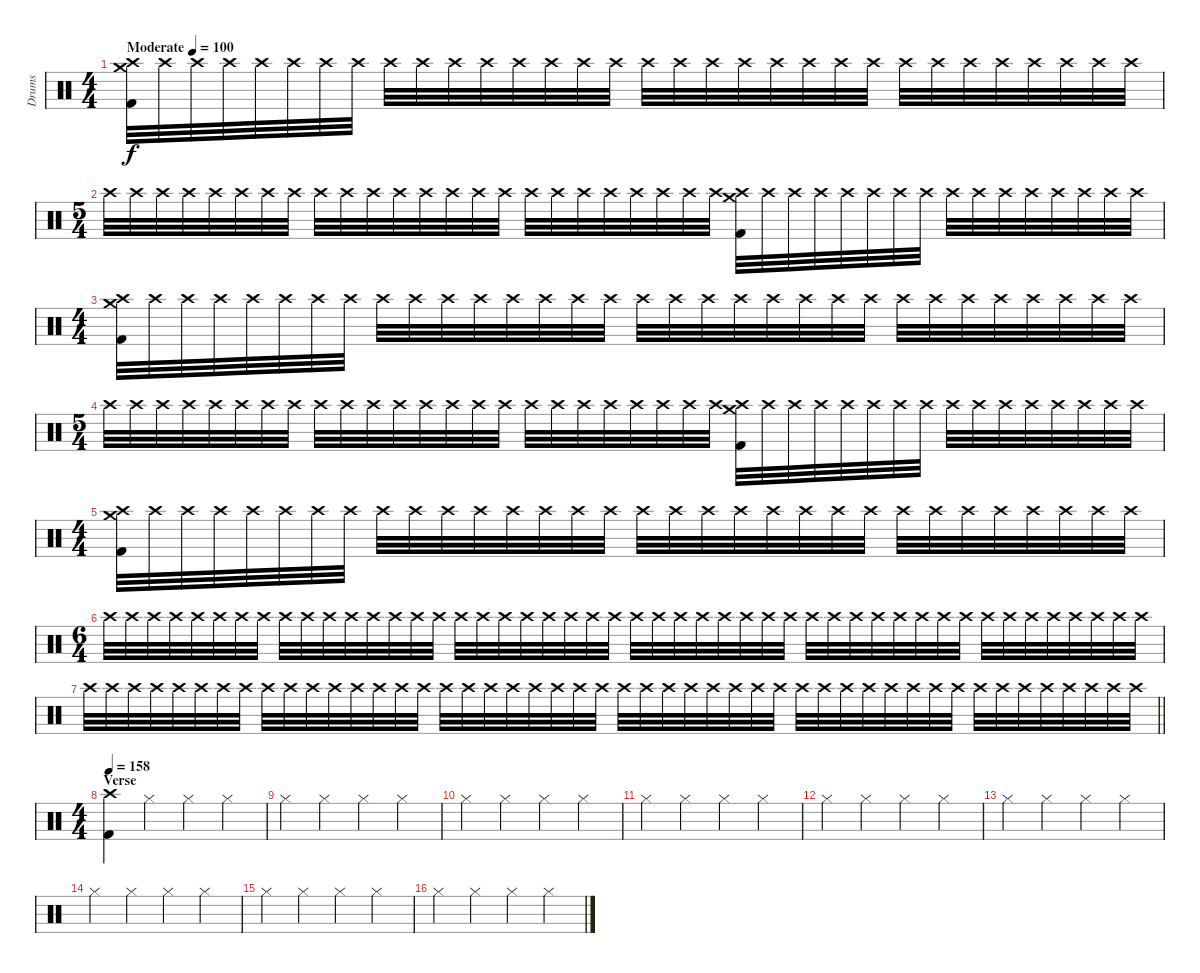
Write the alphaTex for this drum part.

\track ("Drums" "Drums") {instrument percussion}
\staff {score}
\articulation defaults
\ts (4 4)
\tempo (100 "Moderate")
\clef neutral
\ks c
("Crash medium (hit)" "Crash high (hit)" "Kick (hit) 2").32{dy f} "Crash high (hit)".32 "Crash high (hit)".32 "Crash high (hit)".32 "Crash high (hit)".32 "Crash high (hit)".32 "Crash high (hit)".32 "Crash high (hit)".32 "Crash high (hit)".32 "Crash high (hit)".32 "Crash high (hit)".32 "Crash high (hit)".32 "Crash high (hit)".32 "Crash high (hit)".32 "Crash high (hit)".32 "Crash high (hit)".32 "Crash high (hit)".32 "Crash high (hit)".32 "Crash high (hit)".32 "Crash high (hit)".32 "Crash high (hit)".32 "Crash high (hit)".32 "Crash high (hit)".32 "Crash high (hit)".32 "Crash high (hit)".32 "Crash high (hit)".32 "Crash high (hit)".32 "Crash high (hit)".32 "Crash high (hit)".32 "Crash high (hit)".32 "Crash high (hit)".32 "Crash high (hit)".32 |
\ts (5 4)
"Crash high (hit)".32 "Crash high (hit)".32 "Crash high (hit)".32 "Crash high (hit)".32 "Crash high (hit)".32 "Crash high (hit)".32 "Crash high (hit)".32 "Crash high (hit)".32 "Crash high (hit)".32 "Crash high (hit)".32 "Crash high (hit)".32 "Crash high (hit)".32 "Crash high (hit)".32 "Crash high (hit)".32 "Crash high (hit)".32 "Crash high (hit)".32 "Crash high (hit)".32 "Crash high (hit)".32 "Crash high (hit)".32 "Crash high (hit)".32 "Crash high (hit)".32 "Crash high (hit)".32 "Crash high (hit)".32 "Crash high (hit)".32 ("Crash medium (hit)" "Crash high (hit)" "Kick (hit) 2").32 "Crash high (hit)".32 "Crash high (hit)".32 "Crash high (hit)".32 "Crash high (hit)".32 "Crash high (hit)".32 "Crash high (hit)".32 "Crash high (hit)".32 "Crash high (hit)".32 "Crash high (hit)".32 "Crash high (hit)".32 "Crash high (hit)".32 "Crash high (hit)".32 "Crash high (hit)".32 "Crash high (hit)".32 "Crash high (hit)".32 |
\ts (4 4)
("Crash medium (hit)" "Crash high (hit)" "Kick (hit) 2").32 "Crash high (hit)".32 "Crash high (hit)".32 "Crash high (hit)".32 "Crash high (hit)".32 "Crash high (hit)".32 "Crash high (hit)".32 "Crash high (hit)".32 "Crash high (hit)".32 "Crash high (hit)".32 "Crash high (hit)".32 "Crash high (hit)".32 "Crash high (hit)".32 "Crash high (hit)".32 "Crash high (hit)".32 "Crash high (hit)".32 "Crash high (hit)".32 "Crash high (hit)".32 "Crash high (hit)".32 "Crash high (hit)".32 "Crash high (hit)".32 "Crash high (hit)".32 "Crash high (hit)".32 "Crash high (hit)".32 "Crash high (hit)".32 "Crash high (hit)".32 "Crash high (hit)".32 "Crash high (hit)".32 "Crash high (hit)".32 "Crash high (hit)".32 "Crash high (hit)".32 "Crash high (hit)".32 |
\ts (5 4)
"Crash high (hit)".32 "Crash high (hit)".32 "Crash high (hit)".32 "Crash high (hit)".32 "Crash high (hit)".32 "Crash high (hit)".32 "Crash high (hit)".32 "Crash high (hit)".32 "Crash high (hit)".32 "Crash high (hit)".32 "Crash high (hit)".32 "Crash high (hit)".32 "Crash high (hit)".32 "Crash high (hit)".32 "Crash high (hit)".32 "Crash high (hit)".32 "Crash high (hit)".32 "Crash high (hit)".32 "Crash high (hit)".32 "Crash high (hit)".32 "Crash high (hit)".32 "Crash high (hit)".32 "Crash high (hit)".32 "Crash high (hit)".32 ("Crash medium (hit)" "Crash high (hit)" "Kick (hit) 2").32 "Crash high (hit)".32 "Crash high (hit)".32 "Crash high (hit)".32 "Crash high (hit)".32 "Crash high (hit)".32 "Crash high (hit)".32 "Crash high (hit)".32 "Crash high (hit)".32 "Crash high (hit)".32 "Crash high (hit)".32 "Crash high (hit)".32 "Crash high (hit)".32 "Crash high (hit)".32 "Crash high (hit)".32 "Crash high (hit)".32 |
\ts (4 4)
("Crash medium (hit)" "Crash high (hit)" "Kick (hit) 2").32{volume 0} "Crash high (hit)".32 "Crash high (hit)".32 "Crash high (hit)".32 "Crash high (hit)".32 "Crash high (hit)".32 "Crash high (hit)".32 "Crash high (hit)".32 "Crash high (hit)".32 "Crash high (hit)".32 "Crash high (hit)".32 "Crash high (hit)".32 "Crash high (hit)".32 "Crash high (hit)".32 "Crash high (hit)".32 "Crash high (hit)".32 "Crash high (hit)".32 "Crash high (hit)".32 "Crash high (hit)".32 "Crash high (hit)".32 "Crash high (hit)".32 "Crash high (hit)".32 "Crash high (hit)".32 "Crash high (hit)".32 "Crash high (hit)".32 "Crash high (hit)".32 "Crash high (hit)".32 "Crash high (hit)".32 "Crash high (hit)".32 "Crash high (hit)".32 "Crash high (hit)".32 "Crash high (hit)".32 |
\ts (6 4)
"Crash high (hit)".32 "Crash high (hit)".32 "Crash high (hit)".32 "Crash high (hit)".32 "Crash high (hit)".32 "Crash high (hit)".32 "Crash high (hit)".32 "Crash high (hit)".32 "Crash high (hit)".32 "Crash high (hit)".32 "Crash high (hit)".32 "Crash high (hit)".32 "Crash high (hit)".32 "Crash high (hit)".32 "Crash high (hit)".32 "Crash high (hit)".32 "Crash high (hit)".32 "Crash high (hit)".32 "Crash high (hit)".32 "Crash high (hit)".32 "Crash high (hit)".32 "Crash high (hit)".32 "Crash high (hit)".32 "Crash high (hit)".32 "Crash high (hit)".32 "Crash high (hit)".32 "Crash high (hit)".32 "Crash high (hit)".32 "Crash high (hit)".32 "Crash high (hit)".32 "Crash high (hit)".32 "Crash high (hit)".32 "Crash high (hit)".32 "Crash high (hit)".32 "Crash high (hit)".32 "Crash high (hit)".32 "Crash high (hit)".32 "Crash high (hit)".32 "Crash high (hit)".32 "Crash high (hit)".32 "Crash high (hit)".32 "Crash high (hit)".32 "Crash high (hit)".32 "Crash high (hit)".32 "Crash high (hit)".32 "Crash high (hit)".32 "Crash high (hit)".32 "Crash high (hit)".32 |
\barLineRight lightlight "Crash high (hit)".32 "Crash high (hit)".32 "Crash high (hit)".32 "Crash high (hit)".32 "Crash high (hit)".32 "Crash high (hit)".32 "Crash high (hit)".32 "Crash high (hit)".32 "Crash high (hit)".32 "Crash high (hit)".32 "Crash high (hit)".32 "Crash high (hit)".32 "Crash high (hit)".32 "Crash high (hit)".32 "Crash high (hit)".32 "Crash high (hit)".32 "Crash high (hit)".32 "Crash high (hit)".32 "Crash high (hit)".32 "Crash high (hit)".32 "Crash high (hit)".32 "Crash high (hit)".32 "Crash high (hit)".32 "Crash high (hit)".32 "Crash high (hit)".32 "Crash high (hit)".32 "Crash high (hit)".32 "Crash high (hit)".32 "Crash high (hit)".32 "Crash high (hit)".32 "Crash high (hit)".32 "Crash high (hit)".32 "Crash high (hit)".32 "Crash high (hit)".32 "Crash high (hit)".32 "Crash high (hit)".32 "Crash high (hit)".32 "Crash high (hit)".32 "Crash high (hit)".32 "Crash high (hit)".32 "Crash high (hit)".32 "Crash high (hit)".32 "Crash high (hit)".32 "Crash high (hit)".32 "Crash high (hit)".32 "Crash high (hit)".32 "Crash high (hit)".32 "Crash high (hit)".32
|
\ts (4 4)
\section ("" "Verse")
\tempo 158
("Crash high (hit)" "Kick (hit) 2").4{volume 13} "Hi-Hat (closed)".4 "Hi-Hat (closed)".4 "Hi-Hat (closed)".4 |
"Hi-Hat (closed)".4 "Hi-Hat (closed)".4 "Hi-Hat (closed)".4 "Hi-Hat (closed)".4 |
"Hi-Hat (closed)".4 "Hi-Hat (closed)".4 "Hi-Hat (closed)".4 "Hi-Hat (closed)".4 |
"Hi-Hat (closed)".4 "Hi-Hat (closed)".4 "Hi-Hat (closed)".4 "Hi-Hat (closed)".4 |
"Hi-Hat (closed)".4 "Hi-Hat (closed)".4 "Hi-Hat (closed)".4 "Hi-Hat (closed)".4 |
"Hi-Hat (closed)".4 "Hi-Hat (closed)".4 "Hi-Hat (closed)".4 "Hi-Hat (closed)".4 |
"Hi-Hat (closed)".4 "Hi-Hat (closed)".4 "Hi-Hat (closed)".4 "Hi-Hat (closed)".4 |
"Hi-Hat (closed)".4 "Hi-Hat (closed)".4 "Hi-Hat (closed)".4 "Hi-Hat (closed)".4 |
"Hi-Hat (closed)".4 "Hi-Hat (closed)".4 "Hi-Hat (closed)".4 "Hi-Hat (closed)".4
